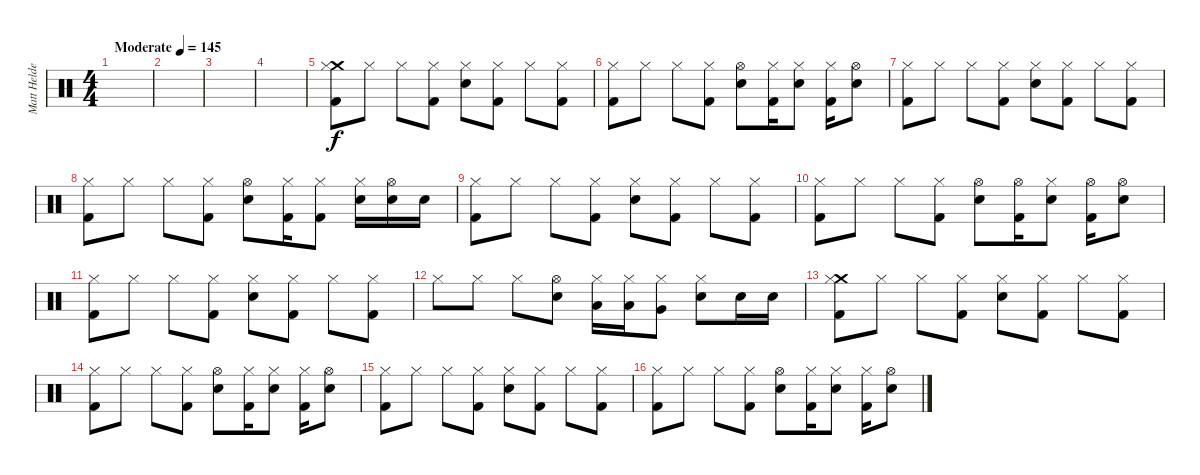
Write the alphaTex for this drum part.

\track ("Matt Helders" "Matt Helde") {instrument percussion}
\staff {score}
\articulation defaults
\ts (4 4)
\tempo (145 "Moderate")
\clef neutral
\ks c
|
|
|
|
("Crash medium (hit)" "Hi-Hat (closed)" "Kick (hit) 2").8 "Hi-Hat (closed)".8 "Hi-Hat (closed)".8 ("Hi-Hat (closed)" "Kick (hit) 2").8 ("Hi-Hat (closed)" "Snare (hit) 2").8 ("Hi-Hat (closed)" "Kick (hit) 2").8 "Hi-Hat (closed)".8 ("Hi-Hat (closed)" "Kick (hit) 2").8 |
("Hi-Hat (closed)" "Kick (hit) 2").8 "Hi-Hat (closed)".8 "Hi-Hat (closed)".8 ("Hi-Hat (closed)" "Kick (hit) 2").8 ("Hi-Hat (open)" "Snare (hit) 2").8 ("Hi-Hat (closed)" "Kick (hit) 2").16 ("Hi-Hat (closed)" "Snare (hit) 2").8 ("Hi-Hat (closed)" "Kick (hit) 2").16 ("Hi-Hat (open)" "Snare (hit) 2").8 |
("Hi-Hat (closed)" "Kick (hit) 2").8 "Hi-Hat (closed)".8 "Hi-Hat (closed)".8 ("Hi-Hat (closed)" "Kick (hit) 2").8 ("Hi-Hat (closed)" "Snare (hit) 2").8 ("Hi-Hat (closed)" "Kick (hit) 2").8 "Hi-Hat (closed)".8 ("Hi-Hat (closed)" "Kick (hit) 2").8 |
("Hi-Hat (closed)" "Kick (hit) 2").8 "Hi-Hat (closed)".8 "Hi-Hat (closed)".8 ("Hi-Hat (closed)" "Kick (hit) 2").8 ("Hi-Hat (open)" "Snare (hit) 2").8 ("Hi-Hat (closed)" "Kick (hit) 2").16 ("Hi-Hat (closed)" "Kick (hit) 2").8 ("Hi-Hat (closed)" "Snare (hit) 2").16 ("Hi-Hat (open)" "Snare (hit) 2").16 "Snare (hit) 2".16 |
("Hi-Hat (closed)" "Kick (hit) 2").8 "Hi-Hat (closed)".8 "Hi-Hat (closed)".8 ("Hi-Hat (closed)" "Kick (hit) 2").8 ("Hi-Hat (closed)" "Snare (hit) 2").8 ("Hi-Hat (closed)" "Kick (hit) 2").8 "Hi-Hat (closed)".8 ("Hi-Hat (closed)" "Kick (hit) 2").8 |
("Hi-Hat (closed)" "Kick (hit) 2").8 "Hi-Hat (closed)".8 "Hi-Hat (closed)".8 ("Hi-Hat (closed)" "Kick (hit) 2").8 ("Hi-Hat (open)" "Snare (hit) 2").8 ("Hi-Hat (open)" "Kick (hit) 2").16 ("Hi-Hat (closed)" "Snare (hit) 2").8 ("Hi-Hat (open)" "Kick (hit) 2").16 ("Hi-Hat (open)" "Snare (hit) 2").8 |
("Hi-Hat (closed)" "Kick (hit) 2").8 "Hi-Hat (closed)".8 "Hi-Hat (closed)".8 ("Hi-Hat (closed)" "Kick (hit) 2").8 ("Hi-Hat (closed)" "Snare (hit) 2").8 ("Hi-Hat (closed)" "Kick (hit) 2").8 "Hi-Hat (closed)".8 ("Hi-Hat (closed)" "Kick (hit) 2").8 |
"Hi-Hat (closed)".8 "Hi-Hat (closed)".8 "Hi-Hat (closed)".8 ("Hi-Hat (open)" "Snare (hit) 2").8 ("Hi-Hat (closed)" "Low Tom (hit)").16 ("Hi-Hat (closed)" "Low Tom (hit)").16 ("Hi-Hat (closed)" "Very Low Tom (hit)").8 ("Hi-Hat (closed)" "Snare (hit) 2").8 "Snare (hit) 2".16 "Snare (hit) 2".16 |
("Crash medium (hit)" "Hi-Hat (closed)" "Kick (hit) 2").8 "Hi-Hat (closed)".8 "Hi-Hat (closed)".8 ("Hi-Hat (closed)" "Kick (hit) 2").8 ("Hi-Hat (closed)" "Snare (hit) 2").8 ("Hi-Hat (closed)" "Kick (hit) 2").8 "Hi-Hat (closed)".8 ("Hi-Hat (closed)" "Kick (hit) 2").8 |
("Hi-Hat (closed)" "Kick (hit) 2").8 "Hi-Hat (closed)".8 "Hi-Hat (closed)".8 ("Hi-Hat (closed)" "Kick (hit) 2").8 ("Hi-Hat (open)" "Snare (hit) 2").8 ("Hi-Hat (closed)" "Kick (hit) 2").16 ("Hi-Hat (closed)" "Snare (hit) 2").8 ("Hi-Hat (closed)" "Kick (hit) 2").16 ("Hi-Hat (open)" "Snare (hit) 2").8 |
("Hi-Hat (closed)" "Kick (hit) 2").8 "Hi-Hat (closed)".8 "Hi-Hat (closed)".8 ("Hi-Hat (closed)" "Kick (hit) 2").8 ("Hi-Hat (closed)" "Snare (hit) 2").8 ("Hi-Hat (closed)" "Kick (hit) 2").8 "Hi-Hat (closed)".8 ("Hi-Hat (closed)" "Kick (hit) 2").8 |
("Hi-Hat (closed)" "Kick (hit) 2").8 "Hi-Hat (closed)".8 "Hi-Hat (closed)".8 ("Hi-Hat (closed)" "Kick (hit) 2").8 ("Hi-Hat (open)" "Snare (hit) 2").8 ("Hi-Hat (closed)" "Kick (hit) 2").16 ("Hi-Hat (closed)" "Snare (hit) 2").8 ("Hi-Hat (closed)" "Kick (hit) 2").16 ("Hi-Hat (open)" "Snare (hit) 2").8
